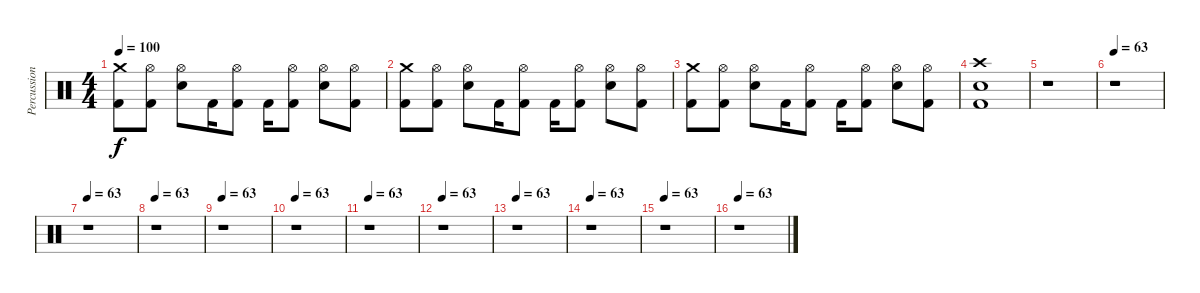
\track ("Percussion" "Percussion") {instrument percussion}
\staff {score}
\articulation defaults
\ts (4 4)
\tempo 100
\clef neutral
\ks c
("Crash medium (hit)" "Kick (hit) 2").8{dy f} ("Hi-Hat (open)" "Kick (hit) 2").8 ("Hi-Hat (open)" "Electric Snare (hit)").8 "Kick (hit) 2".16 ("Hi-Hat (open)" "Kick (hit) 2").8 "Kick (hit) 2".16 ("Hi-Hat (open)" "Kick (hit) 2").8 ("Hi-Hat (open)" "Electric Snare (hit)").8 ("Hi-Hat (open)" "Kick (hit) 2").8 |
("Crash medium (hit)" "Kick (hit) 2").8 ("Hi-Hat (open)" "Kick (hit) 2").8 ("Hi-Hat (open)" "Electric Snare (hit)").8 "Kick (hit) 2".16 ("Hi-Hat (open)" "Kick (hit) 2").8 "Kick (hit) 2".16 ("Hi-Hat (open)" "Kick (hit) 2").8 ("Hi-Hat (open)" "Electric Snare (hit)").8 ("Hi-Hat (open)" "Kick (hit) 2").8 |
("Crash medium (hit)" "Kick (hit) 2").8 ("Hi-Hat (open)" "Kick (hit) 2").8 ("Hi-Hat (open)" "Electric Snare (hit)").8 "Kick (hit) 2".16 ("Hi-Hat (open)" "Kick (hit) 2").8 "Kick (hit) 2".16 ("Hi-Hat (open)" "Kick (hit) 2").8 ("Hi-Hat (open)" "Electric Snare (hit)").8 ("Hi-Hat (open)" "Kick (hit) 2").8 |
("Crash high (hit)" "Electric Snare (hit)" "Kick (hit) 2").1 |
r.1 |
\tempo 63
r.1 |
\tempo 63
r.1 |
\tempo 63
r.1 |
\tempo 63
r.1 |
\tempo 63
r.1 |
\tempo 63
r.1 |
\tempo 63
r.1 |
\tempo 63
r.1 |
\tempo 63
r.1 |
\tempo 63
r.1 |
\tempo 63
r.1
